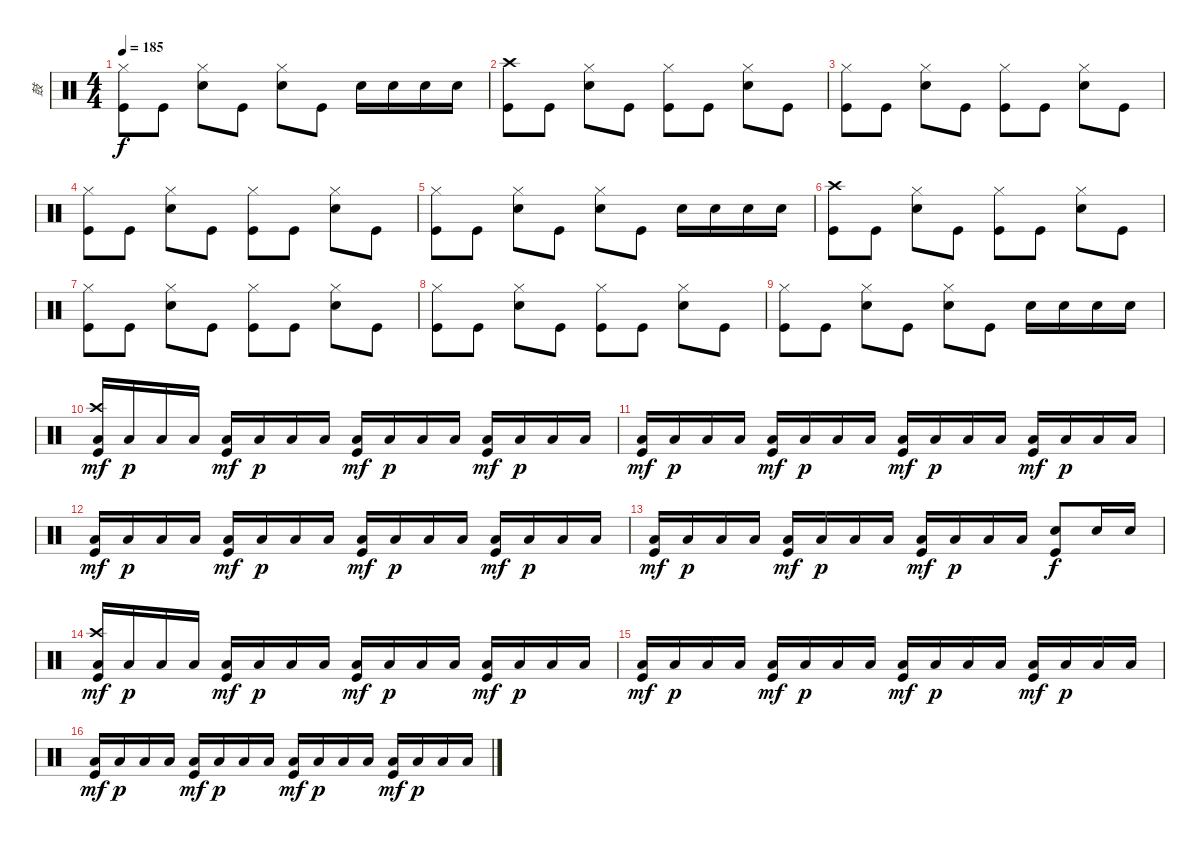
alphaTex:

\track ("鼓" "鼓") {instrument percussion}
\staff {score}
\articulation defaults
\ts (4 4)
\tempo 185
\clef neutral
\ks c
("Hi-Hat (closed)" "Kick (hit)").8{dy f} "Kick (hit)".8 ("Hi-Hat (closed)" "Snare (hit) 2").8 "Kick (hit)".8 ("Hi-Hat (closed)" "Snare (hit) 2").8 "Kick (hit)".8 "Snare (hit) 2".16 "Snare (hit) 2".16 "Snare (hit) 2".16 "Snare (hit) 2".16 |
("Crash high (hit)" "Kick (hit)").8 "Kick (hit)".8 ("Hi-Hat (closed)" "Snare (hit) 2").8 "Kick (hit)".8 ("Hi-Hat (closed)" "Kick (hit)").8 "Kick (hit)".8 ("Hi-Hat (closed)" "Snare (hit) 2").8 "Kick (hit)".8 |
("Hi-Hat (closed)" "Kick (hit)").8 "Kick (hit)".8 ("Hi-Hat (closed)" "Snare (hit) 2").8 "Kick (hit)".8 ("Hi-Hat (closed)" "Kick (hit)").8 "Kick (hit)".8 ("Hi-Hat (closed)" "Snare (hit) 2").8 "Kick (hit)".8 |
("Hi-Hat (closed)" "Kick (hit)").8 "Kick (hit)".8 ("Hi-Hat (closed)" "Snare (hit) 2").8 "Kick (hit)".8 ("Hi-Hat (closed)" "Kick (hit)").8 "Kick (hit)".8 ("Hi-Hat (closed)" "Snare (hit) 2").8 "Kick (hit)".8 |
("Hi-Hat (closed)" "Kick (hit)").8 "Kick (hit)".8 ("Hi-Hat (closed)" "Snare (hit) 2").8 "Kick (hit)".8 ("Hi-Hat (closed)" "Snare (hit) 2").8 "Kick (hit)".8 "Snare (hit) 2".16 "Snare (hit) 2".16 "Snare (hit) 2".16 "Snare (hit) 2".16 |
("Crash high (hit)" "Kick (hit)").8 "Kick (hit)".8 ("Hi-Hat (closed)" "Snare (hit) 2").8 "Kick (hit)".8 ("Hi-Hat (closed)" "Kick (hit)").8 "Kick (hit)".8 ("Hi-Hat (closed)" "Snare (hit) 2").8 "Kick (hit)".8 |
("Hi-Hat (closed)" "Kick (hit)").8 "Kick (hit)".8 ("Hi-Hat (closed)" "Snare (hit) 2").8 "Kick (hit)".8 ("Hi-Hat (closed)" "Kick (hit)").8 "Kick (hit)".8 ("Hi-Hat (closed)" "Snare (hit) 2").8 "Kick (hit)".8 |
("Hi-Hat (closed)" "Kick (hit)").8 "Kick (hit)".8 ("Hi-Hat (closed)" "Snare (hit) 2").8 "Kick (hit)".8 ("Hi-Hat (closed)" "Kick (hit)").8 "Kick (hit)".8 ("Hi-Hat (closed)" "Snare (hit) 2").8 "Kick (hit)".8 |
("Hi-Hat (closed)" "Kick (hit)").8 "Kick (hit)".8 ("Hi-Hat (closed)" "Snare (hit) 2").8 "Kick (hit)".8 ("Hi-Hat (closed)" "Snare (hit) 2").8 "Kick (hit)".8 "Snare (hit) 2".16 "Snare (hit) 2".16 "Snare (hit) 2".16 "Snare (hit) 2".16 |
("Crash high (hit)" "Low Floor Tom (hit)" "Kick (hit)").16{dy mf} "Low Floor Tom (hit)".16{dy p} "Low Floor Tom (hit)".16 "Low Floor Tom (hit)".16 ("Low Floor Tom (hit)" "Kick (hit)").16{dy mf} "Low Floor Tom (hit)".16{dy p} "Low Floor Tom (hit)".16 "Low Floor Tom (hit)".16 ("Low Floor Tom (hit)" "Kick (hit)").16{dy mf} "Low Floor Tom (hit)".16{dy p} "Low Floor Tom (hit)".16 "Low Floor Tom (hit)".16 ("Low Floor Tom (hit)" "Kick (hit)").16{dy mf} "Low Floor Tom (hit)".16{dy p} "Low Floor Tom (hit)".16 "Low Floor Tom (hit)".16 |
("Low Floor Tom (hit)" "Kick (hit)").16{dy mf} "Low Floor Tom (hit)".16{dy p} "Low Floor Tom (hit)".16 "Low Floor Tom (hit)".16 ("Low Floor Tom (hit)" "Kick (hit)").16{dy mf} "Low Floor Tom (hit)".16{dy p} "Low Floor Tom (hit)".16 "Low Floor Tom (hit)".16 ("Low Floor Tom (hit)" "Kick (hit)").16{dy mf} "Low Floor Tom (hit)".16{dy p} "Low Floor Tom (hit)".16 "Low Floor Tom (hit)".16 ("Low Floor Tom (hit)" "Kick (hit)").16{dy mf} "Low Floor Tom (hit)".16{dy p} "Low Floor Tom (hit)".16 "Low Floor Tom (hit)".16 |
("Low Floor Tom (hit)" "Kick (hit)").16{dy mf} "Low Floor Tom (hit)".16{dy p} "Low Floor Tom (hit)".16 "Low Floor Tom (hit)".16 ("Low Floor Tom (hit)" "Kick (hit)").16{dy mf} "Low Floor Tom (hit)".16{dy p} "Low Floor Tom (hit)".16 "Low Floor Tom (hit)".16 ("Low Floor Tom (hit)" "Kick (hit)").16{dy mf} "Low Floor Tom (hit)".16{dy p} "Low Floor Tom (hit)".16 "Low Floor Tom (hit)".16 ("Low Floor Tom (hit)" "Kick (hit)").16{dy mf} "Low Floor Tom (hit)".16{dy p} "Low Floor Tom (hit)".16 "Low Floor Tom (hit)".16 |
("Low Floor Tom (hit)" "Kick (hit)").16{dy mf} "Low Floor Tom (hit)".16{dy p} "Low Floor Tom (hit)".16 "Low Floor Tom (hit)".16 ("Low Floor Tom (hit)" "Kick (hit)").16{dy mf} "Low Floor Tom (hit)".16{dy p} "Low Floor Tom (hit)".16 "Low Floor Tom (hit)".16 ("Low Floor Tom (hit)" "Kick (hit)").16{dy mf} "Low Floor Tom (hit)".16{dy p} "Low Floor Tom (hit)".16 "Low Floor Tom (hit)".16 ("Snare (hit) 2" "Kick (hit)").8{dy f} "Snare (hit) 2".16 "Snare (hit) 2".16 |
("Crash high (hit)" "Low Floor Tom (hit)" "Kick (hit)").16{dy mf} "Low Floor Tom (hit)".16{dy p} "Low Floor Tom (hit)".16 "Low Floor Tom (hit)".16 ("Low Floor Tom (hit)" "Kick (hit)").16{dy mf} "Low Floor Tom (hit)".16{dy p} "Low Floor Tom (hit)".16 "Low Floor Tom (hit)".16 ("Low Floor Tom (hit)" "Kick (hit)").16{dy mf} "Low Floor Tom (hit)".16{dy p} "Low Floor Tom (hit)".16 "Low Floor Tom (hit)".16 ("Low Floor Tom (hit)" "Kick (hit)").16{dy mf} "Low Floor Tom (hit)".16{dy p} "Low Floor Tom (hit)".16 "Low Floor Tom (hit)".16 |
("Low Floor Tom (hit)" "Kick (hit)").16{dy mf} "Low Floor Tom (hit)".16{dy p} "Low Floor Tom (hit)".16 "Low Floor Tom (hit)".16 ("Low Floor Tom (hit)" "Kick (hit)").16{dy mf} "Low Floor Tom (hit)".16{dy p} "Low Floor Tom (hit)".16 "Low Floor Tom (hit)".16 ("Low Floor Tom (hit)" "Kick (hit)").16{dy mf} "Low Floor Tom (hit)".16{dy p} "Low Floor Tom (hit)".16 "Low Floor Tom (hit)".16 ("Low Floor Tom (hit)" "Kick (hit)").16{dy mf} "Low Floor Tom (hit)".16{dy p} "Low Floor Tom (hit)".16 "Low Floor Tom (hit)".16 |
("Low Floor Tom (hit)" "Kick (hit)").16{dy mf} "Low Floor Tom (hit)".16{dy p} "Low Floor Tom (hit)".16 "Low Floor Tom (hit)".16 ("Low Floor Tom (hit)" "Kick (hit)").16{dy mf} "Low Floor Tom (hit)".16{dy p} "Low Floor Tom (hit)".16 "Low Floor Tom (hit)".16 ("Low Floor Tom (hit)" "Kick (hit)").16{dy mf} "Low Floor Tom (hit)".16{dy p} "Low Floor Tom (hit)".16 "Low Floor Tom (hit)".16 ("Low Floor Tom (hit)" "Kick (hit)").16{dy mf} "Low Floor Tom (hit)".16{dy p} "Low Floor Tom (hit)".16 "Low Floor Tom (hit)".16
